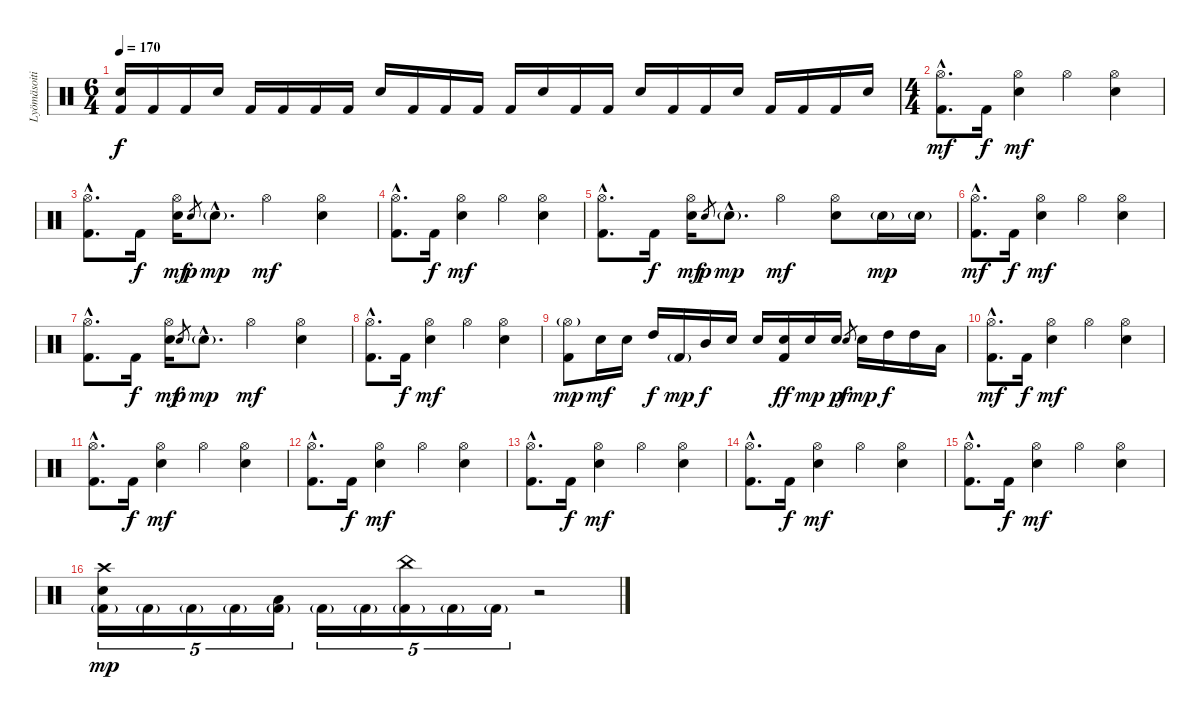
\track ("Lyömäsoitin" "Lyömäsoiti") {instrument percussion}
\staff {score}
\articulation defaults
\ts (6 4)
\tempo 170
\clef neutral
\ks c
("Kick (hit) 2" "Electric Snare (hit)").16{dy f} "Kick (hit) 2".16 "Kick (hit) 2".16 "Electric Snare (hit)".16 "Kick (hit) 2".16 "Kick (hit) 2".16 "Kick (hit) 2".16 "Kick (hit) 2".16 "Electric Snare (hit)".16 "Kick (hit) 2".16 "Kick (hit) 2".16 "Kick (hit) 2".16 "Kick (hit) 2".16 "Electric Snare (hit)".16 "Kick (hit) 2".16 "Kick (hit) 2".16 "Electric Snare (hit)".16 "Kick (hit) 2".16 "Kick (hit) 2".16 "Electric Snare (hit)".16 "Kick (hit) 2".16 "Kick (hit) 2".16 "Kick (hit) 2".16 "Electric Snare (hit)".16 |
\ts (4 4)
("Hi-Hat (open)"{hac} "Kick (hit) 2"{hac}).8{d dy mf} "Kick (hit) 2".16{dy f} ("Hi-Hat (open)" "Electric Snare (hit)").4{dy mf} "Hi-Hat (open)".4 ("Hi-Hat (open)" "Electric Snare (hit)").4 |
("Hi-Hat (open)"{hac} "Kick (hit) 2"{hac}).8{d} "Kick (hit) 2".16{dy f} ("Hi-Hat (open)" "Electric Snare (hit)").16{dy mf} "Electric Snare (hit)".8{gr dy p} "Electric Snare (hit)"{g hac}.8{d dy mp} "Hi-Hat (open)".4{dy mf} ("Hi-Hat (open)" "Electric Snare (hit)").4 |
("Hi-Hat (open)"{hac} "Kick (hit) 2"{hac}).8{d} "Kick (hit) 2".16{dy f} ("Hi-Hat (open)" "Electric Snare (hit)").4{dy mf} "Hi-Hat (open)".4 ("Hi-Hat (open)" "Electric Snare (hit)").4 |
("Hi-Hat (open)"{hac} "Kick (hit) 2"{hac}).8{d} "Kick (hit) 2".16{dy f} ("Hi-Hat (open)" "Electric Snare (hit)").16{dy mf} "Electric Snare (hit)".8{gr dy p} "Electric Snare (hit)"{g hac}.8{d dy mp} "Hi-Hat (open)".4{dy mf} ("Hi-Hat (open)" "Electric Snare (hit)").8 "Electric Snare (hit)"{g}.16{dy mp} "Electric Snare (hit)"{g}.16 |
("Hi-Hat (open)"{hac} "Kick (hit) 2"{hac}).8{d dy mf} "Kick (hit) 2".16{dy f} ("Hi-Hat (open)" "Electric Snare (hit)").4{dy mf} "Hi-Hat (open)".4 ("Hi-Hat (open)" "Electric Snare (hit)").4 |
("Hi-Hat (open)"{hac} "Kick (hit) 2"{hac}).8{d} "Kick (hit) 2".16{dy f} ("Hi-Hat (open)" "Electric Snare (hit)").16{dy mf} "Electric Snare (hit)".8{gr dy p} "Electric Snare (hit)"{g hac}.8{d dy mp} "Hi-Hat (open)".4{dy mf} ("Hi-Hat (open)" "Electric Snare (hit)").4 |
("Hi-Hat (open)"{hac} "Kick (hit) 2"{hac}).8{d} "Kick (hit) 2".16{dy f} ("Hi-Hat (open)" "Electric Snare (hit)").4{dy mf} "Hi-Hat (open)".4 ("Hi-Hat (open)" "Electric Snare (hit)").4 |
("Kick (hit) 2" "Hi-Hat (open)"{g}).8{dy mp} "Electric Snare (hit)".16{dy mf} "Electric Snare (hit)".16 "High Tom (hit)".16{dy f} "Kick (hit) 2"{g}.16{dy mp} "Mid Tom (hit)".16{dy f} "Electric Snare (hit)".16 "Electric Snare (hit)".16 ("Kick (hit) 2" "Electric Snare (hit)").16{dy ff} "Electric Snare (hit)".16{dy mp} "Electric Snare (hit)".16{dy p} "Electric Snare (hit)".8{gr dy f} "Electric Snare (hit)".16{dy mp} "High Tom (hit)".16{dy f} "High Tom (hit)".16 "Low Floor Tom (hit)".16 |
("Hi-Hat (open)"{hac} "Kick (hit) 2"{hac}).8{d dy mf} "Kick (hit) 2".16{dy f} ("Hi-Hat (open)" "Electric Snare (hit)").4{dy mf} "Hi-Hat (open)".4 ("Hi-Hat (open)" "Electric Snare (hit)").4 |
("Hi-Hat (open)"{hac} "Kick (hit) 2"{hac}).8{d} "Kick (hit) 2".16{dy f} ("Hi-Hat (open)" "Electric Snare (hit)").4{dy mf} "Hi-Hat (open)".4 ("Hi-Hat (open)" "Electric Snare (hit)").4 |
("Hi-Hat (open)"{hac} "Kick (hit) 2"{hac}).8{d} "Kick (hit) 2".16{dy f} ("Hi-Hat (open)" "Electric Snare (hit)").4{dy mf} "Hi-Hat (open)".4 ("Hi-Hat (open)" "Electric Snare (hit)").4 |
("Hi-Hat (open)"{hac} "Kick (hit) 2"{hac}).8{d} "Kick (hit) 2".16{dy f} ("Hi-Hat (open)" "Electric Snare (hit)").4{dy mf} "Hi-Hat (open)".4 ("Hi-Hat (open)" "Electric Snare (hit)").4 |
("Hi-Hat (open)"{hac} "Kick (hit) 2"{hac}).8{d} "Kick (hit) 2".16{dy f} ("Hi-Hat (open)" "Electric Snare (hit)").4{dy mf} "Hi-Hat (open)".4 ("Hi-Hat (open)" "Electric Snare (hit)").4 |
("Hi-Hat (open)"{hac} "Kick (hit) 2"{hac}).8{d} "Kick (hit) 2".16{dy f} ("Hi-Hat (open)" "Electric Snare (hit)").4{dy mf} "Hi-Hat (open)".4 ("Hi-Hat (open)" "Electric Snare (hit)").4 |
("Kick (hit) 2"{g} "Crash high (hit)" "Electric Snare (hit)").16{tu (5 4) dy mp} "Kick (hit) 2"{g}.16{tu (5 4)} "Kick (hit) 2"{g}.16{tu (5 4)} "Kick (hit) 2"{g}.16{tu (5 4)} ("Kick (hit) 2"{g} "Low Floor Tom (hit)").16{tu (5 4)} "Kick (hit) 2"{g}.16{tu (5 4)} "Kick (hit) 2"{g}.16{tu (5 4)} ("Kick (hit) 2"{g} "China (hit)").16{tu (5 4)} "Kick (hit) 2"{g}.16{tu (5 4)} "Kick (hit) 2"{g}.16{tu (5 4)} r.2
